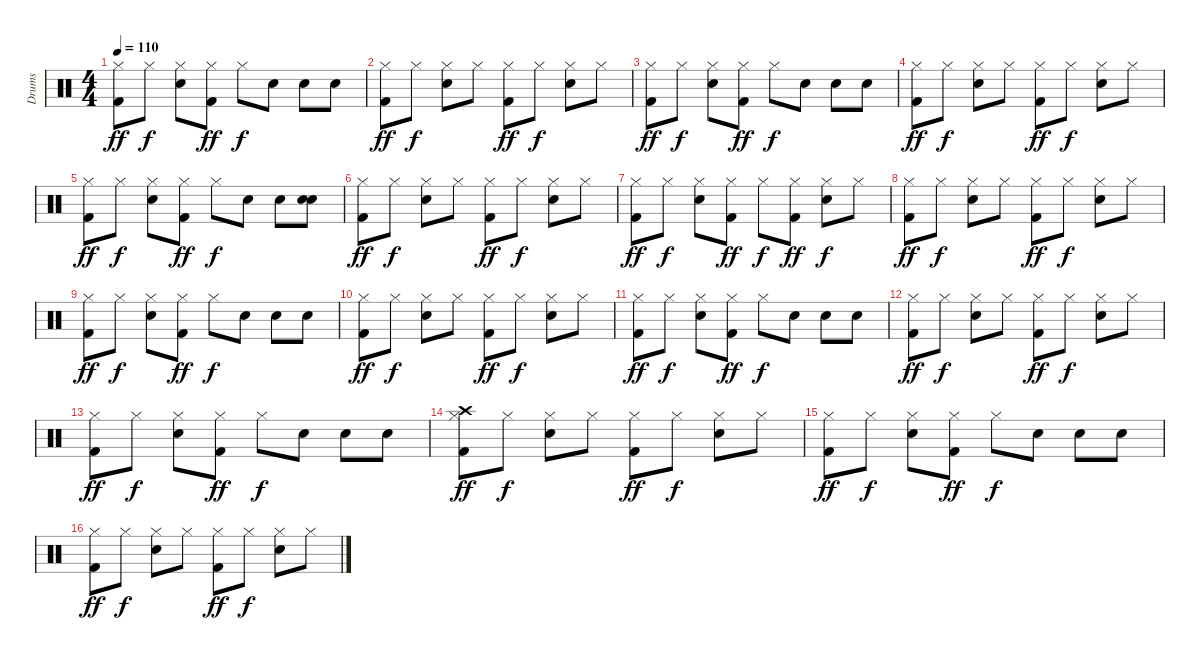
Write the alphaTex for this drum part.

\track ("Drums" "Drums") {instrument percussion}
\staff {score}
\articulation defaults
\ts (4 4)
\tempo 110
\clef neutral
\ks c
("Hi-Hat (closed)" "Kick (hit) 2").8{dy ff} "Hi-Hat (closed)".8{dy f} ("Hi-Hat (closed)" "Electric Snare (hit)").8 ("Hi-Hat (closed)" "Kick (hit) 2").8{dy ff} "Hi-Hat (closed)".8{dy f} "Electric Snare (hit)".8 "Electric Snare (hit)".8 "Electric Snare (hit)".8 |
("Hi-Hat (closed)" "Kick (hit) 2").8{dy ff} "Hi-Hat (closed)".8{dy f} ("Hi-Hat (closed)" "Electric Snare (hit)").8 "Hi-Hat (closed)".8 ("Hi-Hat (closed)" "Kick (hit) 2").8{dy ff} "Hi-Hat (closed)".8{dy f} ("Hi-Hat (closed)" "Electric Snare (hit)").8 "Hi-Hat (closed)".8 |
("Hi-Hat (closed)" "Kick (hit) 2").8{dy ff} "Hi-Hat (closed)".8{dy f} ("Hi-Hat (closed)" "Electric Snare (hit)").8 ("Hi-Hat (closed)" "Kick (hit) 2").8{dy ff} "Hi-Hat (closed)".8{dy f} "Electric Snare (hit)".8 "Electric Snare (hit)".8 "Electric Snare (hit)".8 |
("Hi-Hat (closed)" "Kick (hit) 2").8{dy ff} "Hi-Hat (closed)".8{dy f} ("Hi-Hat (closed)" "Electric Snare (hit)").8 "Hi-Hat (closed)".8 ("Hi-Hat (closed)" "Kick (hit) 2").8{dy ff} "Hi-Hat (closed)".8{dy f} ("Hi-Hat (closed)" "Electric Snare (hit)").8 "Hi-Hat (closed)".8 |
("Hi-Hat (closed)" "Kick (hit) 2").8{dy ff} "Hi-Hat (closed)".8{dy f} ("Hi-Hat (closed)" "Electric Snare (hit)").8 ("Hi-Hat (closed)" "Kick (hit) 2").8{dy ff} "Hi-Hat (closed)".8{dy f} "Electric Snare (hit)".8 "Electric Snare (hit)".8 ("Snare (hit)" "Electric Snare (hit)").8 |
("Hi-Hat (closed)" "Kick (hit) 2").8{dy ff} "Hi-Hat (closed)".8{dy f} ("Hi-Hat (closed)" "Electric Snare (hit)").8 "Hi-Hat (closed)".8 ("Hi-Hat (closed)" "Kick (hit) 2").8{dy ff} "Hi-Hat (closed)".8{dy f} ("Hi-Hat (closed)" "Electric Snare (hit)").8 "Hi-Hat (closed)".8 |
("Hi-Hat (closed)" "Kick (hit) 2").8{dy ff} "Hi-Hat (closed)".8{dy f} ("Hi-Hat (closed)" "Electric Snare (hit)").8 ("Hi-Hat (closed)" "Kick (hit) 2").8{dy ff} "Hi-Hat (closed)".8{dy f} ("Hi-Hat (closed)" "Kick (hit) 2").8{dy ff} ("Hi-Hat (closed)" "Electric Snare (hit)").8{dy f} "Hi-Hat (closed)".8 |
("Hi-Hat (closed)" "Kick (hit) 2").8{dy ff} "Hi-Hat (closed)".8{dy f} ("Hi-Hat (closed)" "Electric Snare (hit)").8 "Hi-Hat (closed)".8 ("Hi-Hat (closed)" "Kick (hit) 2").8{dy ff} "Hi-Hat (closed)".8{dy f} ("Hi-Hat (closed)" "Electric Snare (hit)").8 "Hi-Hat (closed)".8 |
("Hi-Hat (closed)" "Kick (hit) 2").8{dy ff} "Hi-Hat (closed)".8{dy f} ("Hi-Hat (closed)" "Electric Snare (hit)").8 ("Hi-Hat (closed)" "Kick (hit) 2").8{dy ff} "Hi-Hat (closed)".8{dy f} "Electric Snare (hit)".8 "Electric Snare (hit)".8 "Electric Snare (hit)".8 |
("Hi-Hat (closed)" "Kick (hit) 2").8{dy ff} "Hi-Hat (closed)".8{dy f} ("Hi-Hat (closed)" "Electric Snare (hit)").8 "Hi-Hat (closed)".8 ("Hi-Hat (closed)" "Kick (hit) 2").8{dy ff} "Hi-Hat (closed)".8{dy f} ("Hi-Hat (closed)" "Electric Snare (hit)").8 "Hi-Hat (closed)".8 |
("Hi-Hat (closed)" "Kick (hit) 2").8{dy ff} "Hi-Hat (closed)".8{dy f} ("Hi-Hat (closed)" "Electric Snare (hit)").8 ("Hi-Hat (closed)" "Kick (hit) 2").8{dy ff} "Hi-Hat (closed)".8{dy f} "Electric Snare (hit)".8 "Electric Snare (hit)".8 "Electric Snare (hit)".8 |
("Hi-Hat (closed)" "Kick (hit) 2").8{dy ff} "Hi-Hat (closed)".8{dy f} ("Hi-Hat (closed)" "Electric Snare (hit)").8 "Hi-Hat (closed)".8 ("Hi-Hat (closed)" "Kick (hit) 2").8{dy ff} "Hi-Hat (closed)".8{dy f} ("Hi-Hat (closed)" "Electric Snare (hit)").8 "Hi-Hat (closed)".8 |
("Hi-Hat (closed)" "Kick (hit) 2").8{dy ff} "Hi-Hat (closed)".8{dy f} ("Hi-Hat (closed)" "Electric Snare (hit)").8 ("Hi-Hat (closed)" "Kick (hit) 2").8{dy ff} "Hi-Hat (closed)".8{dy f} "Electric Snare (hit)".8 "Electric Snare (hit)".8 "Electric Snare (hit)".8 |
("Hi-Hat (closed)" "Crash high (hit)" "Kick (hit) 2").8{dy ff} "Hi-Hat (closed)".8{dy f} ("Hi-Hat (closed)" "Electric Snare (hit)").8 "Hi-Hat (closed)".8 ("Hi-Hat (closed)" "Kick (hit) 2").8{dy ff} "Hi-Hat (closed)".8{dy f} ("Hi-Hat (closed)" "Electric Snare (hit)").8 "Hi-Hat (closed)".8 |
("Hi-Hat (closed)" "Kick (hit) 2").8{dy ff} "Hi-Hat (closed)".8{dy f} ("Hi-Hat (closed)" "Electric Snare (hit)").8 ("Hi-Hat (closed)" "Kick (hit) 2").8{dy ff} "Hi-Hat (closed)".8{dy f} "Electric Snare (hit)".8 "Electric Snare (hit)".8 "Electric Snare (hit)".8 |
("Hi-Hat (closed)" "Kick (hit) 2").8{dy ff} "Hi-Hat (closed)".8{dy f} ("Hi-Hat (closed)" "Electric Snare (hit)").8 "Hi-Hat (closed)".8 ("Hi-Hat (closed)" "Kick (hit) 2").8{dy ff} "Hi-Hat (closed)".8{dy f} ("Hi-Hat (closed)" "Electric Snare (hit)").8 "Hi-Hat (closed)".8
